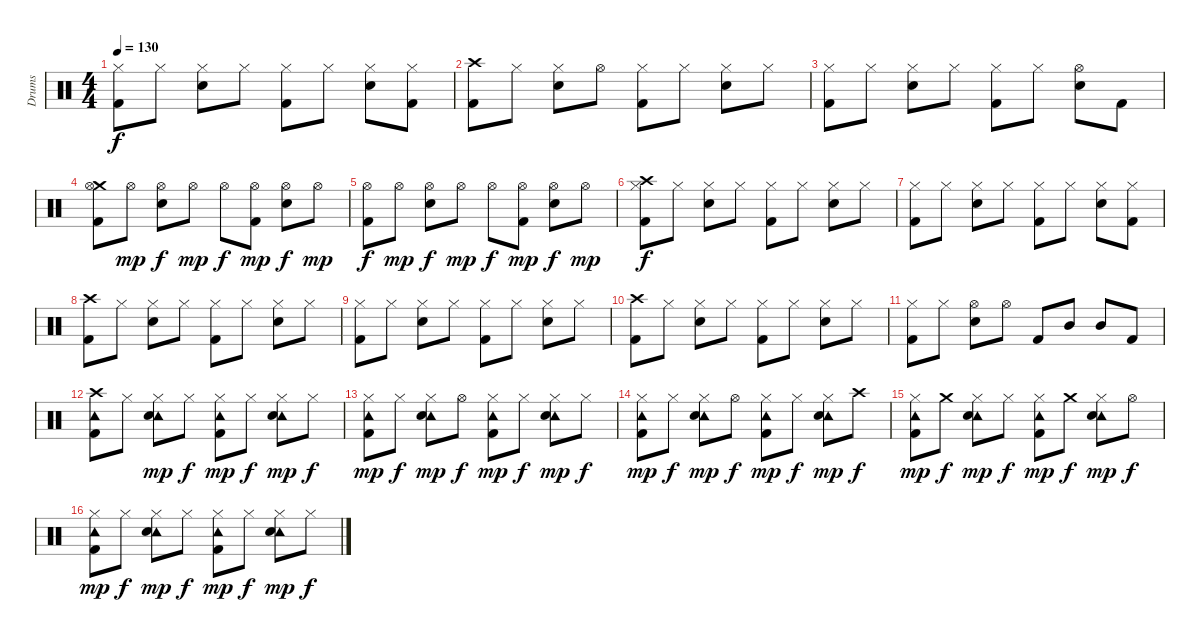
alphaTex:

\track ("Drums" "Drums") {instrument percussion}
\staff {score}
\articulation defaults
\ts (4 4)
\tempo 130
\clef neutral
\ks c
("Hi-Hat (closed)" "Kick (hit) 2").8{dy f} "Hi-Hat (closed)".8 ("Hi-Hat (closed)" "Electric Snare (hit)").8 "Hi-Hat (closed)".8 ("Hi-Hat (closed)" "Kick (hit) 2").8 "Hi-Hat (closed)".8 ("Hi-Hat (closed)" "Electric Snare (hit)").8 ("Hi-Hat (closed)" "Kick (hit) 2").8 |
("Crash high (hit)" "Kick (hit) 2").8 "Hi-Hat (closed)".8 ("Hi-Hat (closed)" "Electric Snare (hit)").8 "Hi-Hat (open)".8 ("Hi-Hat (closed)" "Kick (hit) 2").8 "Hi-Hat (closed)".8 ("Hi-Hat (closed)" "Electric Snare (hit)").8 "Hi-Hat (closed)".8 |
("Hi-Hat (closed)" "Kick (hit) 2").8 "Hi-Hat (closed)".8 ("Hi-Hat (closed)" "Electric Snare (hit)").8 "Hi-Hat (closed)".8 ("Hi-Hat (closed)" "Kick (hit) 2").8 "Hi-Hat (closed)".8 ("Hi-Hat (open)" "Electric Snare (hit)").8 "Kick (hit) 2".8 |
("Crash medium (hit)" "Hi-Hat (open)" "Kick (hit) 2").8 "Hi-Hat (open)".8{dy mp} ("Hi-Hat (open)" "Electric Snare (hit)").8{dy f} "Hi-Hat (open)".8{dy mp} "Hi-Hat (open)".8{dy f} ("Hi-Hat (open)" "Kick (hit) 2").8{dy mp} ("Hi-Hat (open)" "Electric Snare (hit)").8{dy f} "Hi-Hat (open)".8{dy mp} |
("Hi-Hat (open)" "Kick (hit) 2").8{dy f} "Hi-Hat (open)".8{dy mp} ("Hi-Hat (open)" "Electric Snare (hit)").8{dy f} "Hi-Hat (open)".8{dy mp} "Hi-Hat (open)".8{dy f} ("Hi-Hat (open)" "Kick (hit) 2").8{dy mp} ("Hi-Hat (open)" "Electric Snare (hit)").8{dy f} "Hi-Hat (open)".8{dy mp} |
("Crash high (hit)" "Hi-Hat (closed)" "Kick (hit) 2").8{dy f} "Hi-Hat (closed)".8 ("Hi-Hat (closed)" "Electric Snare (hit)").8 "Hi-Hat (closed)".8 ("Hi-Hat (closed)" "Kick (hit) 2").8 "Hi-Hat (closed)".8 ("Hi-Hat (closed)" "Electric Snare (hit)").8 "Hi-Hat (closed)".8 |
("Hi-Hat (closed)" "Kick (hit) 2").8 "Hi-Hat (closed)".8 ("Hi-Hat (closed)" "Electric Snare (hit)").8 "Hi-Hat (closed)".8 ("Hi-Hat (closed)" "Kick (hit) 2").8 "Hi-Hat (closed)".8 ("Hi-Hat (closed)" "Electric Snare (hit)").8 ("Hi-Hat (closed)" "Kick (hit) 2").8 |
("Crash high (hit)" "Kick (hit) 2").8 "Hi-Hat (closed)".8 ("Hi-Hat (closed)" "Electric Snare (hit)").8 "Hi-Hat (closed)".8 ("Hi-Hat (closed)" "Kick (hit) 2").8 "Hi-Hat (closed)".8 ("Hi-Hat (closed)" "Electric Snare (hit)").8 "Hi-Hat (closed)".8 |
("Hi-Hat (closed)" "Kick (hit) 2").8 "Hi-Hat (closed)".8 ("Hi-Hat (closed)" "Electric Snare (hit)").8 "Hi-Hat (closed)".8 ("Hi-Hat (closed)" "Kick (hit) 2").8 "Hi-Hat (closed)".8 ("Hi-Hat (closed)" "Electric Snare (hit)").8 "Hi-Hat (closed)".8 |
("Crash high (hit)" "Kick (hit) 2").8 "Hi-Hat (closed)".8 ("Hi-Hat (closed)" "Electric Snare (hit)").8 "Hi-Hat (closed)".8 ("Hi-Hat (closed)" "Kick (hit) 2").8 "Hi-Hat (closed)".8 ("Hi-Hat (closed)" "Electric Snare (hit)").8 "Hi-Hat (closed)".8 |
("Hi-Hat (closed)" "Kick (hit) 2").8 "Hi-Hat (closed)".8 ("Hi-Hat (open)" "Electric Snare (hit)").8 "Hi-Hat (open)".8 "Kick (hit) 2".8 "Mid Tom (hit)".8 "Mid Tom (hit)".8 "Kick (hit) 2".8 |
("Crash high (hit)" "Tambourine (hit)" "Kick (hit) 2").8 "Hi-Hat (closed)".8 ("Hi-Hat (closed)" "Tambourine (hit)" "Electric Snare (hit)").8{dy mp} "Hi-Hat (closed)".8{dy f} ("Hi-Hat (closed)" "Tambourine (hit)" "Kick (hit) 2").8{dy mp} "Hi-Hat (closed)".8{dy f} ("Hi-Hat (closed)" "Tambourine (hit)" "Electric Snare (hit)").8{dy mp} "Hi-Hat (closed)".8{dy f} |
("Hi-Hat (closed)" "Tambourine (hit)" "Kick (hit) 2").8{dy mp} "Hi-Hat (closed)".8{dy f} ("Hi-Hat (closed)" "Tambourine (hit)" "Electric Snare (hit)").8{dy mp} "Hi-Hat (open)".8{dy f} ("Hi-Hat (closed)" "Tambourine (hit)" "Kick (hit) 2").8{dy mp} "Hi-Hat (closed)".8{dy f} ("Hi-Hat (closed)" "Tambourine (hit)" "Electric Snare (hit)").8{dy mp} "Hi-Hat (closed)".8{dy f} |
("Hi-Hat (closed)" "Tambourine (hit)" "Kick (hit) 2").8{dy mp} "Hi-Hat (closed)".8{dy f} ("Hi-Hat (closed)" "Tambourine (hit)" "Electric Snare (hit)").8{dy mp} "Hi-Hat (open)".8{dy f} ("Hi-Hat (closed)" "Tambourine (hit)" "Kick (hit) 2").8{dy mp} "Hi-Hat (closed)".8{dy f} ("Hi-Hat (closed)" "Tambourine (hit)" "Electric Snare (hit)").8{dy mp} "Crash high (hit)".8{dy f} |
("Hi-Hat (closed)" "Tambourine (hit)" "Kick (hit) 2").8{dy mp} "Crash medium (hit)".8{dy f} ("Hi-Hat (closed)" "Tambourine (hit)" "Electric Snare (hit)").8{dy mp} "Hi-Hat (closed)".8{dy f} ("Hi-Hat (closed)" "Tambourine (hit)" "Kick (hit) 2").8{dy mp} "Crash medium (hit)".8{dy f} ("Hi-Hat (closed)" "Tambourine (hit)" "Electric Snare (hit)").8{dy mp} "Hi-Hat (open)".8{dy f} |
("Hi-Hat (closed)" "Tambourine (hit)" "Kick (hit) 2").8{dy mp} "Hi-Hat (closed)".8{dy f} ("Hi-Hat (closed)" "Tambourine (hit)" "Electric Snare (hit)").8{dy mp} "Hi-Hat (closed)".8{dy f} ("Hi-Hat (closed)" "Tambourine (hit)" "Kick (hit) 2").8{dy mp} "Hi-Hat (closed)".8{dy f} ("Hi-Hat (closed)" "Tambourine (hit)" "Electric Snare (hit)").8{dy mp} "Hi-Hat (closed)".8{dy f}
